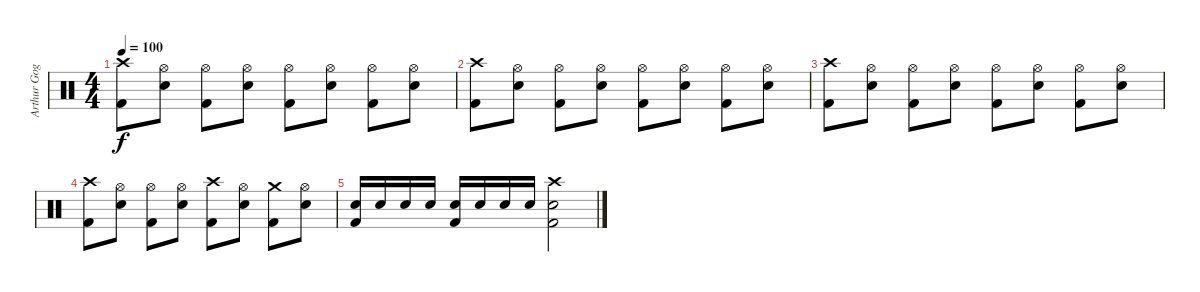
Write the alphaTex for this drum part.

\track ("Arthur Goggy" "Arthur Gog") {instrument percussion}
\staff {score}
\articulation defaults
\ts (4 4)
\tempo 100
\clef neutral
\ks c
("Crash high (hit)" "Kick (hit) 2").8{dy f} ("Hi-Hat (open)" "Electric Snare (hit)").8 ("Hi-Hat (open)" "Kick (hit) 2").8 ("Hi-Hat (open)" "Electric Snare (hit)").8 ("Hi-Hat (open)" "Kick (hit) 2").8 ("Hi-Hat (open)" "Electric Snare (hit)").8 ("Hi-Hat (open)" "Kick (hit) 2").8 ("Hi-Hat (open)" "Electric Snare (hit)").8 |
("Crash high (hit)" "Kick (hit) 2").8 ("Hi-Hat (open)" "Electric Snare (hit)").8 ("Hi-Hat (open)" "Kick (hit) 2").8 ("Hi-Hat (open)" "Electric Snare (hit)").8 ("Hi-Hat (open)" "Kick (hit) 2").8 ("Hi-Hat (open)" "Electric Snare (hit)").8 ("Hi-Hat (open)" "Kick (hit) 2").8 ("Hi-Hat (open)" "Electric Snare (hit)").8 |
("Crash high (hit)" "Kick (hit) 2").8 ("Hi-Hat (open)" "Electric Snare (hit)").8 ("Hi-Hat (open)" "Kick (hit) 2").8 ("Hi-Hat (open)" "Electric Snare (hit)").8 ("Hi-Hat (open)" "Kick (hit) 2").8 ("Hi-Hat (open)" "Electric Snare (hit)").8 ("Hi-Hat (open)" "Kick (hit) 2").8 ("Hi-Hat (open)" "Electric Snare (hit)").8 |
("Crash high (hit)" "Kick (hit) 2").8 ("Hi-Hat (open)" "Electric Snare (hit)").8 ("Hi-Hat (open)" "Kick (hit) 2").8 ("Hi-Hat (open)" "Electric Snare (hit)").8 ("Crash high (hit)" "Kick (hit) 2").8 ("Hi-Hat (open)" "Electric Snare (hit)").8 ("Crash medium (hit)" "Kick (hit) 2").8 ("Hi-Hat (open)" "Electric Snare (hit)").8 |
("Electric Snare (hit)" "Kick (hit) 2").16 "Electric Snare (hit)".16 "Electric Snare (hit)".16 "Electric Snare (hit)".16 ("Electric Snare (hit)" "Kick (hit) 2").16 "Electric Snare (hit)".16 "Electric Snare (hit)".16 "Electric Snare (hit)".16 ("Crash high (hit)" "Electric Snare (hit)" "Kick (hit) 2").2
